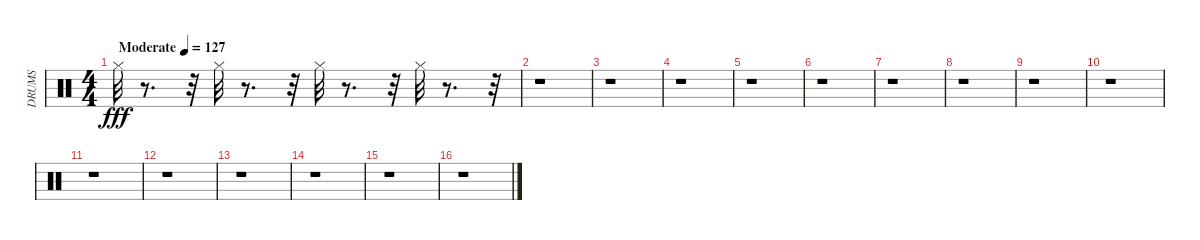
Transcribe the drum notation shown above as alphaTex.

\track ("DRUMS" "DRUMS") {instrument percussion}
\staff {score}
\articulation defaults
\ts (4 4)
\tempo (127 "Moderate")
\clef neutral
\ks c "Hi-Hat (closed)".32{dy fff}
r.8{d} r.32 "Hi-Hat (closed)".32 r.8{d} r.32 "Hi-Hat (closed)".32 r.8{d} r.32 "Hi-Hat (closed)".32 r.8{d} r.32 |
r.1 |
r.1 |
r.1 |
r.1 |
r.1 |
r.1 |
r.1 |
r.1 |
r.1 |
r.1 |
r.1 |
r.1 |
r.1 |
r.1 |
r.1
